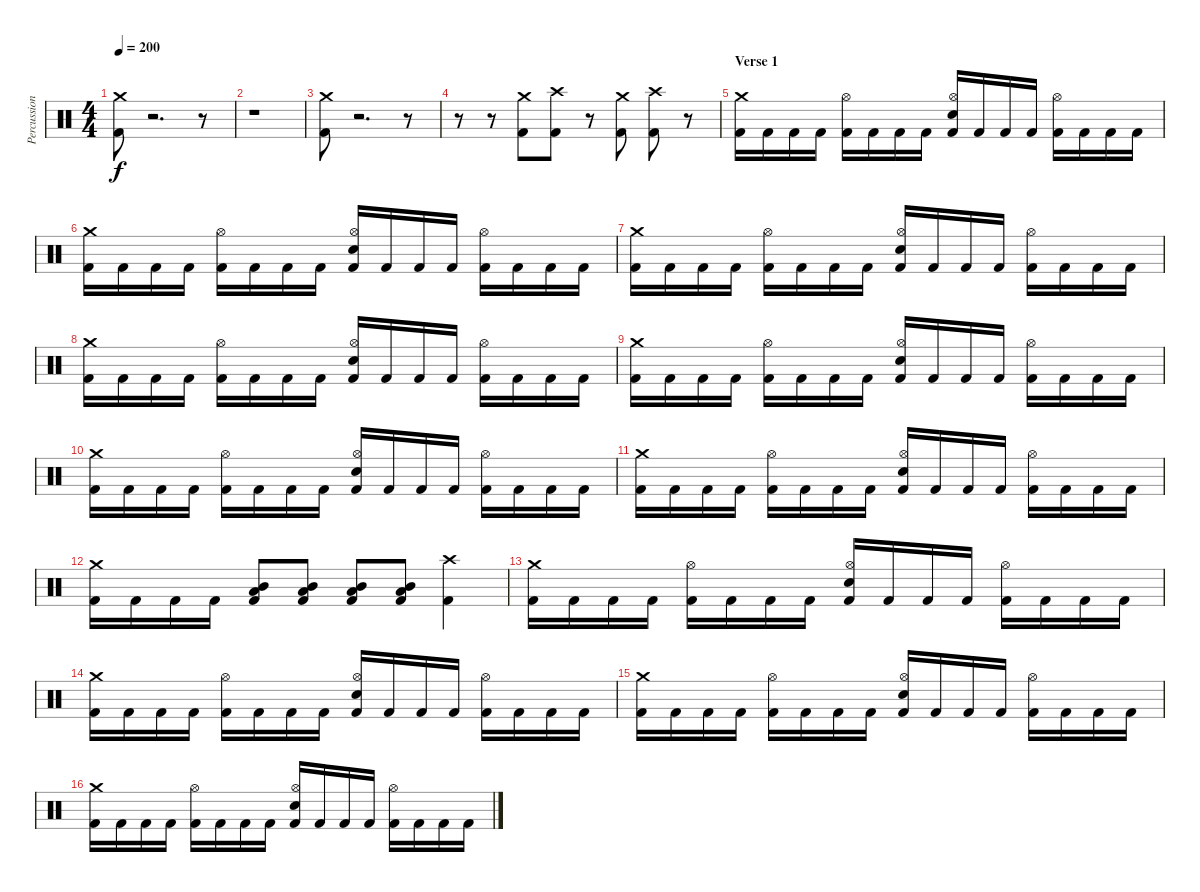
\track ("Percussions" "Percussion") {instrument percussion}
\staff {score}
\articulation defaults
\ts (4 4)
\tempo 200
\clef neutral
\ks c
("Crash medium (hit)" "Kick (hit) 2").8{dy f} r.2{d} r.8 |
r.1 |
("Crash medium (hit)" "Kick (hit) 2").8 r.2{d} r.8 |
r.8 r.8 ("Crash medium (hit)" "Kick (hit) 2").8 ("Crash high (hit)" "Kick (hit) 2").8 r.8 ("Crash medium (hit)" "Kick (hit) 2").8 ("Crash high (hit)" "Kick (hit) 2").8 r.8 |
\section ("" "Verse 1")
("Crash medium (hit)" "Kick (hit) 2").16 "Kick (hit) 2".16 "Kick (hit) 2".16 "Kick (hit) 2".16 ("Hi-Hat (open)" "Kick (hit) 2").16 "Kick (hit) 2".16 "Kick (hit) 2".16 "Kick (hit) 2".16 ("Hi-Hat (open)" "Electric Snare (hit)" "Kick (hit) 2").16 "Kick (hit) 2".16 "Kick (hit) 2".16 "Kick (hit) 2".16 ("Hi-Hat (open)" "Kick (hit) 2").16 "Kick (hit) 2".16 "Kick (hit) 2".16 "Kick (hit) 2".16 |
("Crash medium (hit)" "Kick (hit) 2").16 "Kick (hit) 2".16 "Kick (hit) 2".16 "Kick (hit) 2".16 ("Hi-Hat (open)" "Kick (hit) 2").16 "Kick (hit) 2".16 "Kick (hit) 2".16 "Kick (hit) 2".16 ("Hi-Hat (open)" "Electric Snare (hit)" "Kick (hit) 2").16 "Kick (hit) 2".16 "Kick (hit) 2".16 "Kick (hit) 2".16 ("Hi-Hat (open)" "Kick (hit) 2").16 "Kick (hit) 2".16 "Kick (hit) 2".16 "Kick (hit) 2".16 |
("Crash medium (hit)" "Kick (hit) 2").16 "Kick (hit) 2".16 "Kick (hit) 2".16 "Kick (hit) 2".16 ("Hi-Hat (open)" "Kick (hit) 2").16 "Kick (hit) 2".16 "Kick (hit) 2".16 "Kick (hit) 2".16 ("Hi-Hat (open)" "Electric Snare (hit)" "Kick (hit) 2").16 "Kick (hit) 2".16 "Kick (hit) 2".16 "Kick (hit) 2".16 ("Hi-Hat (open)" "Kick (hit) 2").16 "Kick (hit) 2".16 "Kick (hit) 2".16 "Kick (hit) 2".16 |
("Crash medium (hit)" "Kick (hit) 2").16 "Kick (hit) 2".16 "Kick (hit) 2".16 "Kick (hit) 2".16 ("Hi-Hat (open)" "Kick (hit) 2").16 "Kick (hit) 2".16 "Kick (hit) 2".16 "Kick (hit) 2".16 ("Hi-Hat (open)" "Electric Snare (hit)" "Kick (hit) 2").16 "Kick (hit) 2".16 "Kick (hit) 2".16 "Kick (hit) 2".16 ("Hi-Hat (open)" "Kick (hit) 2").16 "Kick (hit) 2".16 "Kick (hit) 2".16 "Kick (hit) 2".16 |
("Crash medium (hit)" "Kick (hit) 2").16 "Kick (hit) 2".16 "Kick (hit) 2".16 "Kick (hit) 2".16 ("Hi-Hat (open)" "Kick (hit) 2").16 "Kick (hit) 2".16 "Kick (hit) 2".16 "Kick (hit) 2".16 ("Hi-Hat (open)" "Electric Snare (hit)" "Kick (hit) 2").16 "Kick (hit) 2".16 "Kick (hit) 2".16 "Kick (hit) 2".16 ("Hi-Hat (open)" "Kick (hit) 2").16 "Kick (hit) 2".16 "Kick (hit) 2".16 "Kick (hit) 2".16 |
("Crash medium (hit)" "Kick (hit) 2").16 "Kick (hit) 2".16 "Kick (hit) 2".16 "Kick (hit) 2".16 ("Hi-Hat (open)" "Kick (hit) 2").16 "Kick (hit) 2".16 "Kick (hit) 2".16 "Kick (hit) 2".16 ("Hi-Hat (open)" "Electric Snare (hit)" "Kick (hit) 2").16 "Kick (hit) 2".16 "Kick (hit) 2".16 "Kick (hit) 2".16 ("Hi-Hat (open)" "Kick (hit) 2").16 "Kick (hit) 2".16 "Kick (hit) 2".16 "Kick (hit) 2".16 |
("Crash medium (hit)" "Kick (hit) 2").16 "Kick (hit) 2".16 "Kick (hit) 2".16 "Kick (hit) 2".16 ("Hi-Hat (open)" "Kick (hit) 2").16 "Kick (hit) 2".16 "Kick (hit) 2".16 "Kick (hit) 2".16 ("Hi-Hat (open)" "Electric Snare (hit)" "Kick (hit) 2").16 "Kick (hit) 2".16 "Kick (hit) 2".16 "Kick (hit) 2".16 ("Hi-Hat (open)" "Kick (hit) 2").16 "Kick (hit) 2".16 "Kick (hit) 2".16 "Kick (hit) 2".16 |
("Crash medium (hit)" "Kick (hit) 2").16 "Kick (hit) 2".16 "Kick (hit) 2".16 "Kick (hit) 2".16 ("Mid Tom (hit)" "Low Tom (hit)" "Kick (hit) 2").8 ("Mid Tom (hit)" "Low Tom (hit)" "Kick (hit) 2").8 ("Mid Tom (hit)" "Low Tom (hit)" "Kick (hit) 2").8 ("Mid Tom (hit)" "Low Tom (hit)" "Kick (hit) 2").8 ("Crash high (hit)" "Kick (hit) 2").4 |
("Crash medium (hit)" "Kick (hit) 2").16 "Kick (hit) 2".16 "Kick (hit) 2".16 "Kick (hit) 2".16 ("Hi-Hat (open)" "Kick (hit) 2").16 "Kick (hit) 2".16 "Kick (hit) 2".16 "Kick (hit) 2".16 ("Hi-Hat (open)" "Electric Snare (hit)" "Kick (hit) 2").16 "Kick (hit) 2".16 "Kick (hit) 2".16 "Kick (hit) 2".16 ("Hi-Hat (open)" "Kick (hit) 2").16 "Kick (hit) 2".16 "Kick (hit) 2".16 "Kick (hit) 2".16 |
("Crash medium (hit)" "Kick (hit) 2").16 "Kick (hit) 2".16 "Kick (hit) 2".16 "Kick (hit) 2".16 ("Hi-Hat (open)" "Kick (hit) 2").16 "Kick (hit) 2".16 "Kick (hit) 2".16 "Kick (hit) 2".16 ("Hi-Hat (open)" "Electric Snare (hit)" "Kick (hit) 2").16 "Kick (hit) 2".16 "Kick (hit) 2".16 "Kick (hit) 2".16 ("Hi-Hat (open)" "Kick (hit) 2").16 "Kick (hit) 2".16 "Kick (hit) 2".16 "Kick (hit) 2".16 |
("Crash medium (hit)" "Kick (hit) 2").16 "Kick (hit) 2".16 "Kick (hit) 2".16 "Kick (hit) 2".16 ("Hi-Hat (open)" "Kick (hit) 2").16 "Kick (hit) 2".16 "Kick (hit) 2".16 "Kick (hit) 2".16 ("Hi-Hat (open)" "Electric Snare (hit)" "Kick (hit) 2").16 "Kick (hit) 2".16 "Kick (hit) 2".16 "Kick (hit) 2".16 ("Hi-Hat (open)" "Kick (hit) 2").16 "Kick (hit) 2".16 "Kick (hit) 2".16 "Kick (hit) 2".16 |
("Crash medium (hit)" "Kick (hit) 2").16 "Kick (hit) 2".16 "Kick (hit) 2".16 "Kick (hit) 2".16 ("Hi-Hat (open)" "Kick (hit) 2").16 "Kick (hit) 2".16 "Kick (hit) 2".16 "Kick (hit) 2".16 ("Hi-Hat (open)" "Electric Snare (hit)" "Kick (hit) 2").16 "Kick (hit) 2".16 "Kick (hit) 2".16 "Kick (hit) 2".16 ("Hi-Hat (open)" "Kick (hit) 2").16 "Kick (hit) 2".16 "Kick (hit) 2".16 "Kick (hit) 2".16
